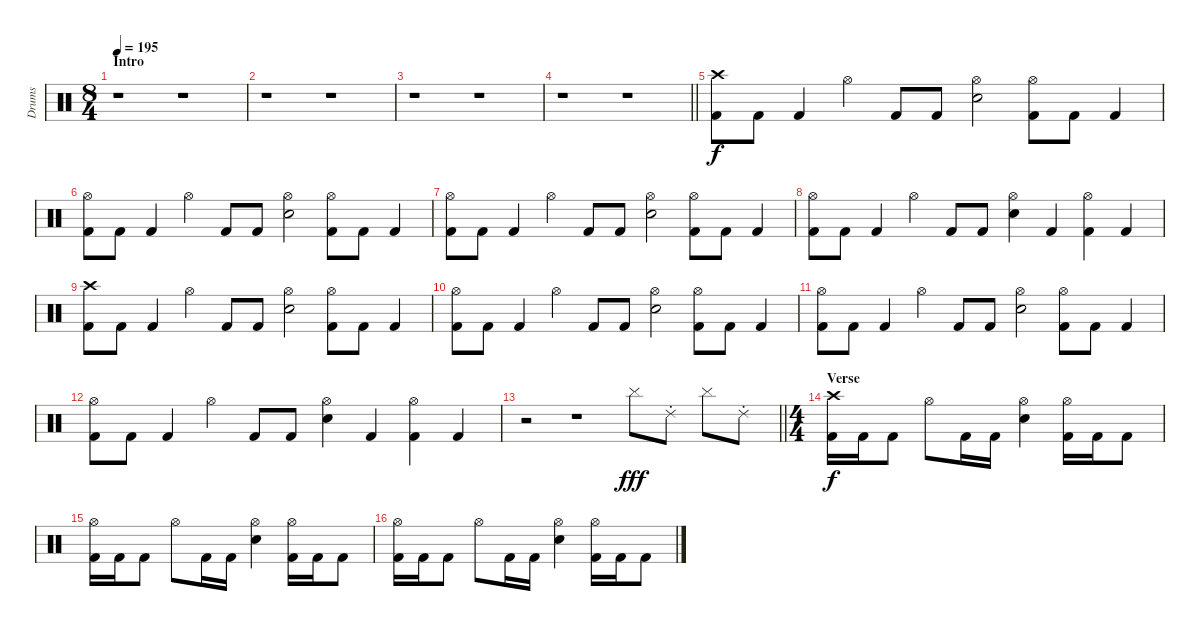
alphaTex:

\track ("Drums" "Drums") {instrument percussion}
\staff {score}
\articulation defaults
\ts (8 4)
\section ("" "Intro")
\tempo 195
\clef neutral
\ks c
r.1{dy f} r.1 |
r.1 r.1 |
r.1 r.1 |
\barLineRight lightlight
r.1 r.1 |
("Crash high (hit)" "Kick (hit) 2").8 "Kick (hit) 2".8 "Kick (hit) 2".4 "Hi-Hat (open)".4 "Kick (hit) 2".8 "Kick (hit) 2".8 ("Hi-Hat (open)" "Electric Snare (hit)").2 ("Hi-Hat (open)" "Kick (hit) 2").8 "Kick (hit) 2".8 "Kick (hit) 2".4 |
("Hi-Hat (open)" "Kick (hit) 2").8 "Kick (hit) 2".8 "Kick (hit) 2".4 "Hi-Hat (open)".4 "Kick (hit) 2".8 "Kick (hit) 2".8 ("Hi-Hat (open)" "Electric Snare (hit)").2 ("Hi-Hat (open)" "Kick (hit) 2").8 "Kick (hit) 2".8 "Kick (hit) 2".4 |
("Hi-Hat (open)" "Kick (hit) 2").8 "Kick (hit) 2".8 "Kick (hit) 2".4 "Hi-Hat (open)".4 "Kick (hit) 2".8 "Kick (hit) 2".8 ("Hi-Hat (open)" "Electric Snare (hit)").2 ("Hi-Hat (open)" "Kick (hit) 2").8 "Kick (hit) 2".8 "Kick (hit) 2".4 |
("Hi-Hat (open)" "Kick (hit) 2").8 "Kick (hit) 2".8 "Kick (hit) 2".4 "Hi-Hat (open)".4 "Kick (hit) 2".8 "Kick (hit) 2".8 ("Hi-Hat (open)" "Electric Snare (hit)").4 "Kick (hit) 2".4 ("Hi-Hat (open)" "Kick (hit) 2").4 "Kick (hit) 2".4 |
("Crash high (hit)" "Kick (hit) 2").8 "Kick (hit) 2".8 "Kick (hit) 2".4 "Hi-Hat (open)".4 "Kick (hit) 2".8 "Kick (hit) 2".8 ("Hi-Hat (open)" "Electric Snare (hit)").2 ("Hi-Hat (open)" "Kick (hit) 2").8 "Kick (hit) 2".8 "Kick (hit) 2".4 |
("Hi-Hat (open)" "Kick (hit) 2").8 "Kick (hit) 2".8 "Kick (hit) 2".4 "Hi-Hat (open)".4 "Kick (hit) 2".8 "Kick (hit) 2".8 ("Hi-Hat (open)" "Electric Snare (hit)").2 ("Hi-Hat (open)" "Kick (hit) 2").8 "Kick (hit) 2".8 "Kick (hit) 2".4 |
("Hi-Hat (open)" "Kick (hit) 2").8 "Kick (hit) 2".8 "Kick (hit) 2".4 "Hi-Hat (open)".4 "Kick (hit) 2".8 "Kick (hit) 2".8 ("Hi-Hat (open)" "Electric Snare (hit)").2 ("Hi-Hat (open)" "Kick (hit) 2").8 "Kick (hit) 2".8 "Kick (hit) 2".4 |
("Hi-Hat (open)" "Kick (hit) 2").8 "Kick (hit) 2".8 "Kick (hit) 2".4 "Hi-Hat (open)".4 "Kick (hit) 2".8 "Kick (hit) 2".8 ("Hi-Hat (open)" "Electric Snare (hit)").4 "Kick (hit) 2".4 ("Hi-Hat (open)" "Kick (hit) 2").4 "Kick (hit) 2".4 |
\barLineRight lightlight
r.2 r.1{volume 16} "Cymbal (hit)".8{dy fff} "Ride (choke) 2".8 "Cymbal (hit)".8 "Ride (choke) 2".8 |
\ts (4 4)
\section ("" "Verse")
("Crash high (hit)" "Kick (hit) 2").16{dy f volume 11} "Kick (hit) 2".16 "Kick (hit) 2".8 "Hi-Hat (open)".8 "Kick (hit) 2".16 "Kick (hit) 2".16 ("Hi-Hat (open)" "Electric Snare (hit)").4 ("Hi-Hat (open)" "Kick (hit) 2").16 "Kick (hit) 2".16 "Kick (hit) 2".8 |
("Hi-Hat (open)" "Kick (hit) 2").16 "Kick (hit) 2".16 "Kick (hit) 2".8 "Hi-Hat (open)".8 "Kick (hit) 2".16 "Kick (hit) 2".16 ("Hi-Hat (open)" "Electric Snare (hit)").4 ("Hi-Hat (open)" "Kick (hit) 2").16 "Kick (hit) 2".16 "Kick (hit) 2".8 |
("Hi-Hat (open)" "Kick (hit) 2").16 "Kick (hit) 2".16 "Kick (hit) 2".8 "Hi-Hat (open)".8 "Kick (hit) 2".16 "Kick (hit) 2".16 ("Hi-Hat (open)" "Electric Snare (hit)").4 ("Hi-Hat (open)" "Kick (hit) 2").16 "Kick (hit) 2".16 "Kick (hit) 2".8
